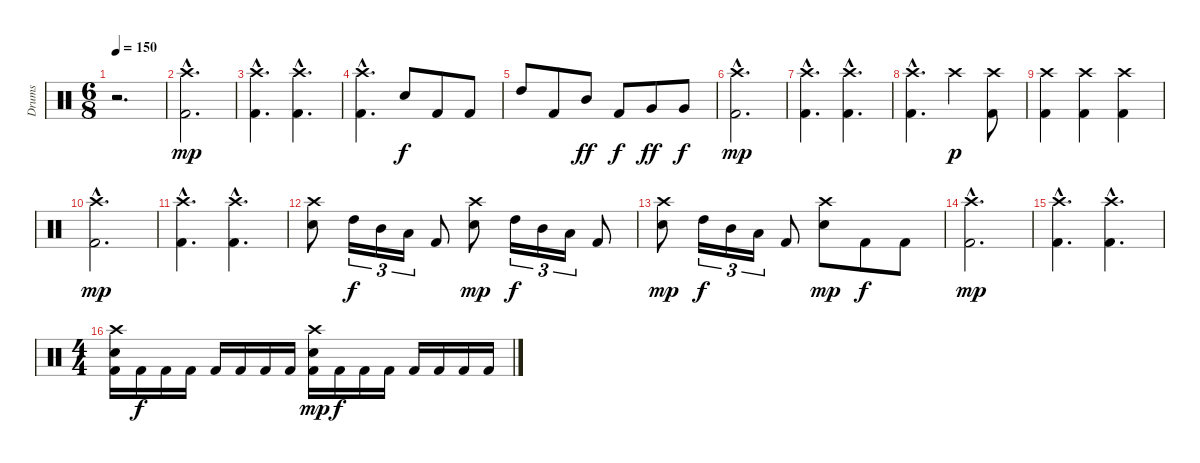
\track ("Drums" "Drums") {instrument percussion}
\staff {score}
\articulation defaults
\ts (6 8)
\tempo 150
\clef neutral
\ks c
r.2{d dy mp} |
("Crash high (hit)"{hac} "Kick (hit) 2"{hac}).2{d} |
("Crash high (hit)"{hac} "Kick (hit) 2"{hac}).4{d} ("Crash high (hit)"{hac} "Kick (hit) 2"{hac}).4{d} |
("Crash high (hit)"{hac} "Kick (hit) 2"{hac}).4{d} "Electric Snare (hit)".8{dy f} "Kick (hit) 2".8 "Kick (hit) 2".8 |
"High Tom (hit)".8 "Kick (hit) 2".8 "Mid Tom (hit)".8{dy ff} "Kick (hit) 2".8{dy f} "Very Low Tom (hit)".8{dy ff} "Very Low Tom (hit)".8{dy f} |
("Crash high (hit)"{hac} "Kick (hit) 2"{hac}).2{d dy mp} |
("Crash high (hit)"{hac} "Kick (hit) 2"{hac}).4{d} ("Crash high (hit)"{hac} "Kick (hit) 2"{hac}).4{d} |
("Crash high (hit)"{hac} "Kick (hit) 2"{hac}).4{d} "Crash high (hit)".4{dy p} ("Crash high (hit)" "Kick (hit) 2").8 |
("Crash high (hit)" "Kick (hit) 2").4 ("Crash high (hit)" "Kick (hit) 2").4 ("Crash high (hit)" "Kick (hit) 2").4 |
("Crash high (hit)"{hac} "Kick (hit) 2"{hac}).2{d dy mp} |
("Crash high (hit)"{hac} "Kick (hit) 2"{hac}).4{d} ("Crash high (hit)"{hac} "Kick (hit) 2"{hac}).4{d} |
("Crash high (hit)" "Electric Snare (hit)").8 "High Tom (hit)".16{tu (3 2) dy f} "Mid Tom (hit)".16{tu (3 2)} "Low Tom (hit)".16{tu (3 2)} "Kick (hit) 2".8 ("Crash high (hit)" "Electric Snare (hit)").8{dy mp} "High Tom (hit)".16{tu (3 2) dy f} "Mid Tom (hit)".16{tu (3 2)} "Low Tom (hit)".16{tu (3 2)} "Kick (hit) 2".8 |
("Crash high (hit)" "Electric Snare (hit)").8{dy mp} "High Tom (hit)".16{tu (3 2) dy f} "Mid Tom (hit)".16{tu (3 2)} "Low Tom (hit)".16{tu (3 2)} "Kick (hit) 2".8 ("Crash high (hit)" "Electric Snare (hit)").8{dy mp} "Kick (hit) 2".8{dy f} "Kick (hit) 2".8 |
("Crash high (hit)"{hac} "Kick (hit) 2"{hac}).2{d dy mp} |
("Crash high (hit)"{hac} "Kick (hit) 2"{hac}).4{d} ("Crash high (hit)"{hac} "Kick (hit) 2"{hac}).4{d} |
\ts (4 4)
("Crash high (hit)" "Electric Snare (hit)" "Kick (hit) 2").16 "Kick (hit) 2".16{dy f} "Kick (hit) 2".16 "Kick (hit) 2".16 "Kick (hit) 2".16 "Kick (hit) 2".16 "Kick (hit) 2".16 "Kick (hit) 2".16 ("Crash high (hit)" "Electric Snare (hit)" "Kick (hit) 2").16{dy mp} "Kick (hit) 2".16{dy f} "Kick (hit) 2".16 "Kick (hit) 2".16 "Kick (hit) 2".16 "Kick (hit) 2".16 "Kick (hit) 2".16 "Kick (hit) 2".16
